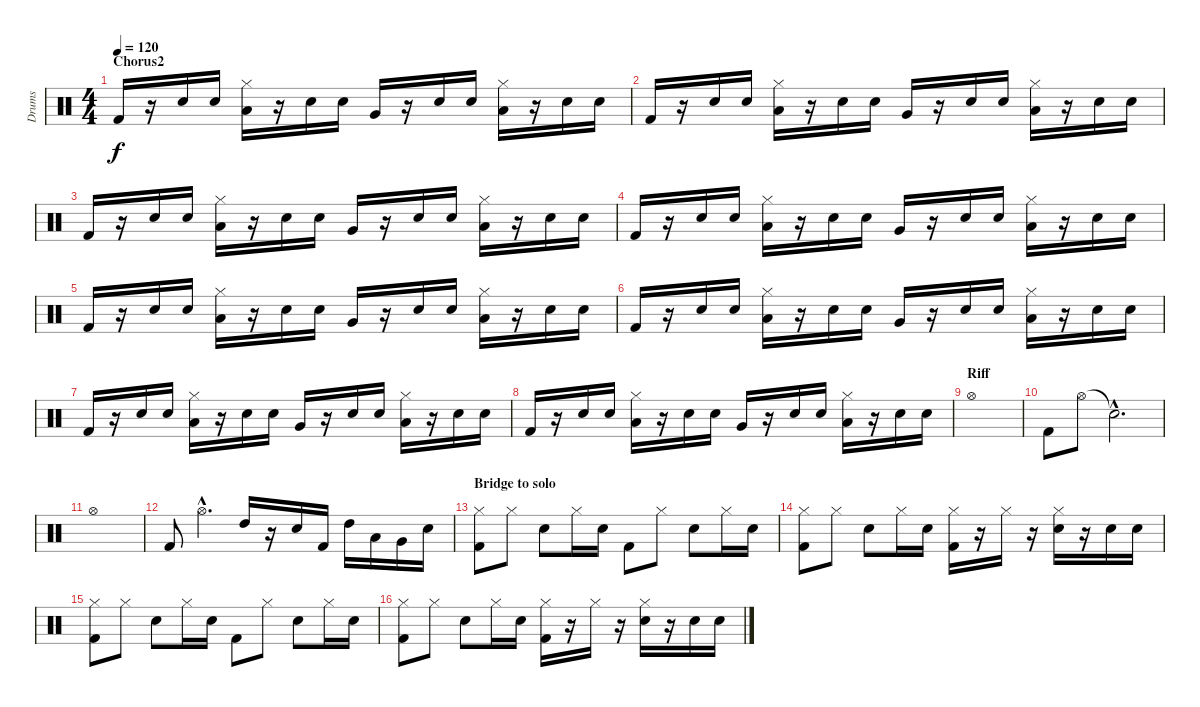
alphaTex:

\track ("Drums" "Drums") {instrument percussion}
\staff {score}
\articulation defaults
\ts (4 4)
\section ("" "Chorus2")
\tempo 120
\clef neutral
\ks c "Kick (hit) 2".16{dy f}
r.16 "Electric Snare (hit)".16 "Electric Snare (hit)".16 ("Hi-Hat (closed)" "Low Floor Tom (hit)").16 r.16 "Electric Snare (hit)".16 "Electric Snare (hit)".16 "Very Low Tom (hit)".16 r.16 "Electric Snare (hit)".16 "Electric Snare (hit)".16 ("Hi-Hat (closed)" "Low Floor Tom (hit)").16 r.16 "Electric Snare (hit)".16 "Electric Snare (hit)".16 |
"Kick (hit) 2".16 r.16 "Electric Snare (hit)".16 "Electric Snare (hit)".16 ("Hi-Hat (closed)" "Low Floor Tom (hit)").16 r.16 "Electric Snare (hit)".16 "Electric Snare (hit)".16 "Very Low Tom (hit)".16 r.16 "Electric Snare (hit)".16 "Electric Snare (hit)".16 ("Hi-Hat (closed)" "Low Floor Tom (hit)").16 r.16 "Electric Snare (hit)".16 "Electric Snare (hit)".16 |
"Kick (hit) 2".16 r.16 "Electric Snare (hit)".16 "Electric Snare (hit)".16 ("Hi-Hat (closed)" "Low Floor Tom (hit)").16 r.16 "Electric Snare (hit)".16 "Electric Snare (hit)".16 "Very Low Tom (hit)".16 r.16 "Electric Snare (hit)".16 "Electric Snare (hit)".16 ("Hi-Hat (closed)" "Low Floor Tom (hit)").16 r.16 "Electric Snare (hit)".16 "Electric Snare (hit)".16 |
"Kick (hit) 2".16 r.16 "Electric Snare (hit)".16 "Electric Snare (hit)".16 ("Hi-Hat (closed)" "Low Floor Tom (hit)").16 r.16 "Electric Snare (hit)".16 "Electric Snare (hit)".16 "Very Low Tom (hit)".16 r.16 "Electric Snare (hit)".16 "Electric Snare (hit)".16 ("Hi-Hat (closed)" "Low Floor Tom (hit)").16 r.16 "Electric Snare (hit)".16 "Electric Snare (hit)".16 |
"Kick (hit) 2".16 r.16 "Electric Snare (hit)".16 "Electric Snare (hit)".16 ("Hi-Hat (closed)" "Low Floor Tom (hit)").16 r.16 "Electric Snare (hit)".16 "Electric Snare (hit)".16 "Very Low Tom (hit)".16 r.16 "Electric Snare (hit)".16 "Electric Snare (hit)".16 ("Hi-Hat (closed)" "Low Floor Tom (hit)").16 r.16 "Electric Snare (hit)".16 "Electric Snare (hit)".16 |
"Kick (hit) 2".16 r.16 "Electric Snare (hit)".16 "Electric Snare (hit)".16 ("Hi-Hat (closed)" "Low Floor Tom (hit)").16 r.16 "Electric Snare (hit)".16 "Electric Snare (hit)".16 "Very Low Tom (hit)".16 r.16 "Electric Snare (hit)".16 "Electric Snare (hit)".16 ("Hi-Hat (closed)" "Low Floor Tom (hit)").16 r.16 "Electric Snare (hit)".16 "Electric Snare (hit)".16 |
"Kick (hit) 2".16 r.16 "Electric Snare (hit)".16 "Electric Snare (hit)".16 ("Hi-Hat (closed)" "Low Floor Tom (hit)").16 r.16 "Electric Snare (hit)".16 "Electric Snare (hit)".16 "Very Low Tom (hit)".16 r.16 "Electric Snare (hit)".16 "Electric Snare (hit)".16 ("Hi-Hat (closed)" "Low Floor Tom (hit)").16 r.16 "Electric Snare (hit)".16 "Electric Snare (hit)".16 |
"Kick (hit) 2".16 r.16 "Electric Snare (hit)".16 "Electric Snare (hit)".16 ("Hi-Hat (closed)" "Low Floor Tom (hit)").16 r.16 "Electric Snare (hit)".16 "Electric Snare (hit)".16 "Very Low Tom (hit)".16 r.16 "Electric Snare (hit)".16 "Electric Snare (hit)".16 ("Hi-Hat (closed)" "Low Floor Tom (hit)").16 r.16 "Electric Snare (hit)".16 "Electric Snare (hit)".16 |
\section ("" "Riff")
"Hi-Hat (open)".1 |
"Kick (hit) 2".8 "Hi-Hat (open)".8 "Snare (hit)"{hac t}.2{d} |
"Hi-Hat (open)".1 |
"Kick (hit) 2".8 "Hi-Hat (open)"{hac}.4{d} "High Tom (hit)".16 r.16 "Electric Snare (hit)".16 "Kick (hit) 2".16 "High Tom (hit)".16 "Low Tom (hit)".16 "Very Low Tom (hit)".16 "Electric Snare (hit)".16 |
\section ("" "Bridge to solo")
("Hi-Hat (closed)" "Kick (hit) 2").8 "Hi-Hat (closed)".8 "Electric Snare (hit)".8 "Hi-Hat (closed)".16 "Electric Snare (hit)".16 "Kick (hit) 2".8 "Hi-Hat (closed)".8 "Electric Snare (hit)".8 "Hi-Hat (closed)".16 "Electric Snare (hit)".16 |
("Hi-Hat (closed)" "Kick (hit) 2").8 "Hi-Hat (closed)".8 "Electric Snare (hit)".8 "Hi-Hat (closed)".16 "Electric Snare (hit)".16 ("Hi-Hat (closed)" "Kick (hit) 2").16 r.16 "Hi-Hat (closed)".16 r.16 ("Hi-Hat (closed)" "Electric Snare (hit)").16 r.16 "Electric Snare (hit)".16 "Electric Snare (hit)".16 |
("Hi-Hat (closed)" "Kick (hit) 2").8 "Hi-Hat (closed)".8 "Electric Snare (hit)".8 "Hi-Hat (closed)".16 "Electric Snare (hit)".16 "Kick (hit) 2".8 "Hi-Hat (closed)".8 "Electric Snare (hit)".8 "Hi-Hat (closed)".16 "Electric Snare (hit)".16 |
("Hi-Hat (closed)" "Kick (hit) 2").8 "Hi-Hat (closed)".8 "Electric Snare (hit)".8 "Hi-Hat (closed)".16 "Electric Snare (hit)".16 ("Hi-Hat (closed)" "Kick (hit) 2").16 r.16 "Hi-Hat (closed)".16 r.16 ("Hi-Hat (closed)" "Electric Snare (hit)").16 r.16 "Electric Snare (hit)".16 "Electric Snare (hit)".16
